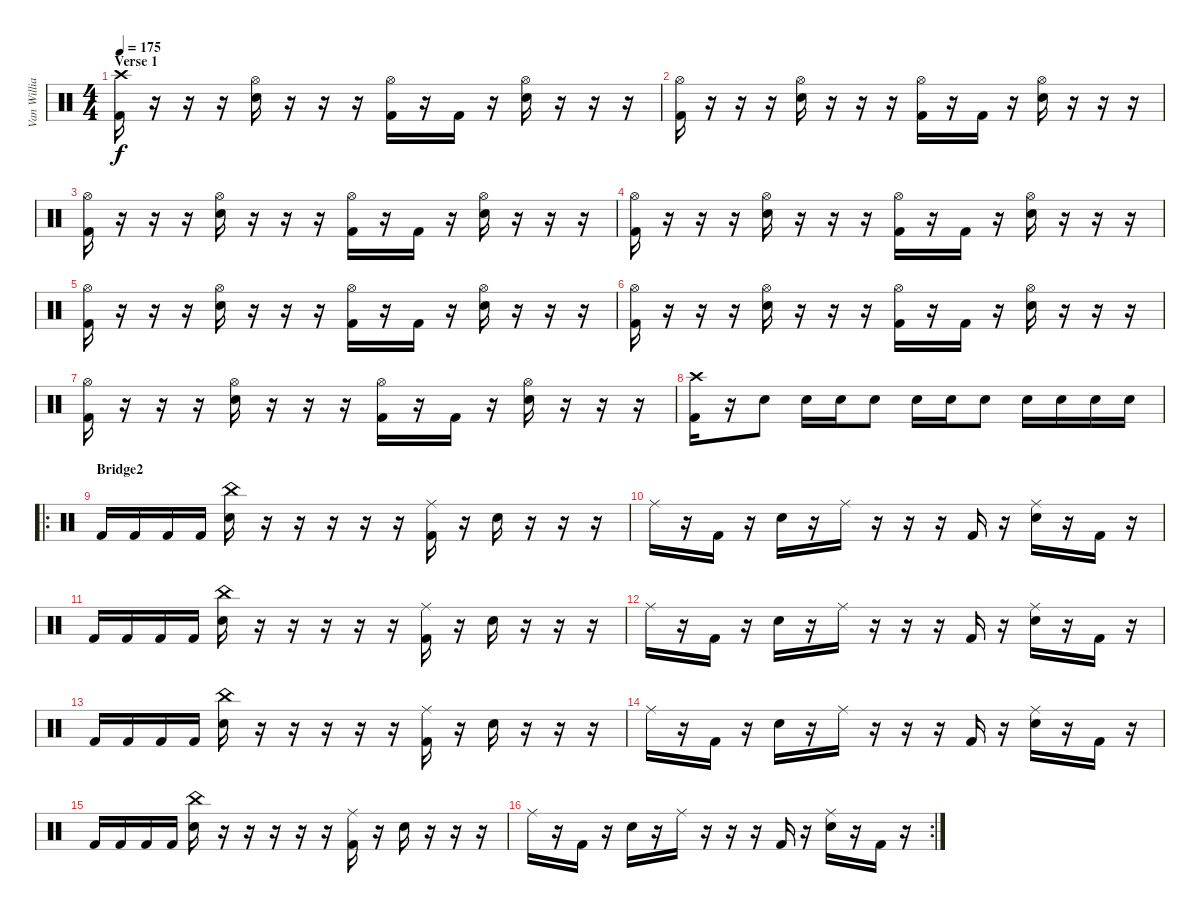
\track ("Van Williams" "Van Willia") {instrument percussion}
\staff {score}
\articulation defaults
\ts (4 4)
\section ("" "Verse 1")
\tempo 175
\clef neutral
\ks c
("Crash high (hit)" "Kick (hit) 2").16{dy f} r.16 r.16 r.16 ("Hi-Hat (open)" "Electric Snare (hit)").16 r.16 r.16 r.16 ("Hi-Hat (open)" "Kick (hit) 2").16 r.16 "Kick (hit) 2".16 r.16 ("Hi-Hat (open)" "Electric Snare (hit)").16 r.16 r.16 r.16 |
("Hi-Hat (open)" "Kick (hit) 2").16 r.16 r.16 r.16 ("Hi-Hat (open)" "Electric Snare (hit)").16 r.16 r.16 r.16 ("Hi-Hat (open)" "Kick (hit) 2").16 r.16 "Kick (hit) 2".16 r.16 ("Hi-Hat (open)" "Electric Snare (hit)").16 r.16 r.16 r.16 |
("Hi-Hat (open)" "Kick (hit) 2").16 r.16 r.16 r.16 ("Hi-Hat (open)" "Electric Snare (hit)").16 r.16 r.16 r.16 ("Hi-Hat (open)" "Kick (hit) 2").16 r.16 "Kick (hit) 2".16 r.16 ("Hi-Hat (open)" "Electric Snare (hit)").16 r.16 r.16 r.16 |
("Hi-Hat (open)" "Kick (hit) 2").16 r.16 r.16 r.16 ("Hi-Hat (open)" "Electric Snare (hit)").16 r.16 r.16 r.16 ("Hi-Hat (open)" "Kick (hit) 2").16 r.16 "Kick (hit) 2".16 r.16 ("Hi-Hat (open)" "Electric Snare (hit)").16 r.16 r.16 r.16 |
("Hi-Hat (open)" "Kick (hit) 2").16 r.16 r.16 r.16 ("Hi-Hat (open)" "Electric Snare (hit)").16 r.16 r.16 r.16 ("Hi-Hat (open)" "Kick (hit) 2").16 r.16 "Kick (hit) 2".16 r.16 ("Hi-Hat (open)" "Electric Snare (hit)").16 r.16 r.16 r.16 |
("Hi-Hat (open)" "Kick (hit) 2").16 r.16 r.16 r.16 ("Hi-Hat (open)" "Electric Snare (hit)").16 r.16 r.16 r.16 ("Hi-Hat (open)" "Kick (hit) 2").16 r.16 "Kick (hit) 2".16 r.16 ("Hi-Hat (open)" "Electric Snare (hit)").16 r.16 r.16 r.16 |
("Hi-Hat (open)" "Kick (hit) 2").16 r.16 r.16 r.16 ("Hi-Hat (open)" "Electric Snare (hit)").16 r.16 r.16 r.16 ("Hi-Hat (open)" "Kick (hit) 2").16 r.16 "Kick (hit) 2".16 r.16 ("Hi-Hat (open)" "Electric Snare (hit)").16 r.16 r.16 r.16 |
("Crash high (hit)" "Kick (hit) 2").16 r.16 "Electric Snare (hit)".8 "Electric Snare (hit)".16 "Electric Snare (hit)".16 "Electric Snare (hit)".8 "Electric Snare (hit)".16 "Electric Snare (hit)".16 "Electric Snare (hit)".8 "Electric Snare (hit)".16 "Electric Snare (hit)".16 "Electric Snare (hit)".16 "Electric Snare (hit)".16 |
\ro
\section ("" "Bridge2")
"Kick (hit) 2".16 "Kick (hit) 2".16 "Kick (hit) 2".16 "Kick (hit) 2".16 ("China (hit)" "Electric Snare (hit)").16 r.16 r.16 r.16 r.16 r.16 ("Ride (middle)" "Kick (hit) 2").16 r.16 "Electric Snare (hit)".16 r.16 r.16 r.16 |
"Ride (middle)".16 r.16 "Kick (hit) 2".16 r.16 "Electric Snare (hit)".16 r.16 "Ride (middle)".16 r.16 r.16 r.16 "Kick (hit) 2".16 r.16 ("Ride (middle)" "Electric Snare (hit)").16 r.16 "Kick (hit) 2".16 r.16 |
"Kick (hit) 2".16 "Kick (hit) 2".16 "Kick (hit) 2".16 "Kick (hit) 2".16 ("China (hit)" "Electric Snare (hit)").16 r.16 r.16 r.16 r.16 r.16 ("Ride (middle)" "Kick (hit) 2").16 r.16 "Electric Snare (hit)".16 r.16 r.16 r.16 |
"Ride (middle)".16 r.16 "Kick (hit) 2".16 r.16 "Electric Snare (hit)".16 r.16 "Ride (middle)".16 r.16 r.16 r.16 "Kick (hit) 2".16 r.16 ("Ride (middle)" "Electric Snare (hit)").16 r.16 "Kick (hit) 2".16 r.16 |
"Kick (hit) 2".16 "Kick (hit) 2".16 "Kick (hit) 2".16 "Kick (hit) 2".16 ("China (hit)" "Electric Snare (hit)").16 r.16 r.16 r.16 r.16 r.16 ("Ride (middle)" "Kick (hit) 2").16 r.16 "Electric Snare (hit)".16 r.16 r.16 r.16 |
"Ride (middle)".16 r.16 "Kick (hit) 2".16 r.16 "Electric Snare (hit)".16 r.16 "Ride (middle)".16 r.16 r.16 r.16 "Kick (hit) 2".16 r.16 ("Ride (middle)" "Electric Snare (hit)").16 r.16 "Kick (hit) 2".16 r.16 |
"Kick (hit) 2".16 "Kick (hit) 2".16 "Kick (hit) 2".16 "Kick (hit) 2".16 ("China (hit)" "Electric Snare (hit)").16 r.16 r.16 r.16 r.16 r.16 ("Ride (middle)" "Kick (hit) 2").16 r.16 "Electric Snare (hit)".16 r.16 r.16 r.16 |
\rc 2 "Ride (middle)".16
r.16 "Kick (hit) 2".16 r.16 "Electric Snare (hit)".16 r.16 "Ride (middle)".16 r.16 r.16 r.16 "Kick (hit) 2".16 r.16 ("Ride (middle)" "Electric Snare (hit)").16 r.16 "Kick (hit) 2".16 r.16
